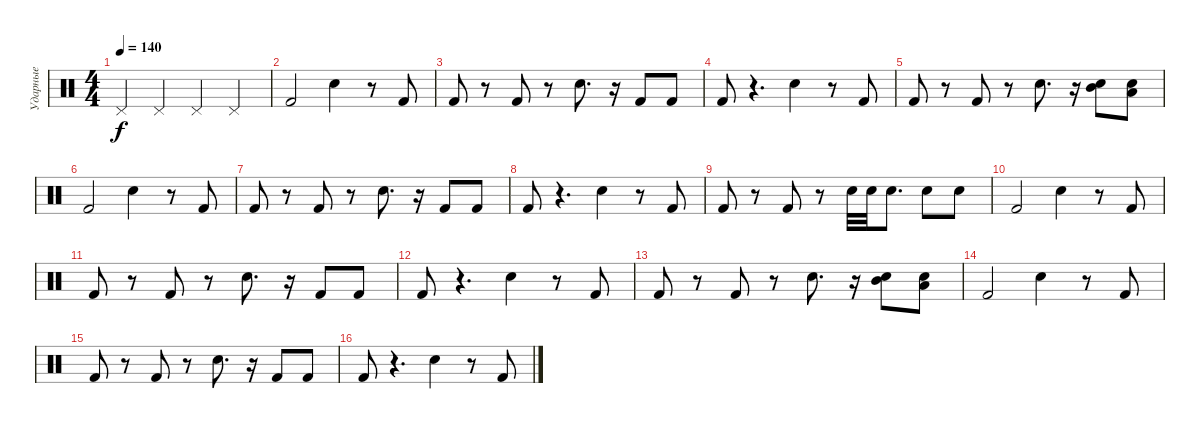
\track ("Ударные" "Ударные") {instrument percussion}
\staff {score}
\articulation defaults
\ts (4 4)
\tempo 140
\clef neutral
\ks c "Pedal Hi-Hat (hit)".4{dy f} "Pedal Hi-Hat (hit)".4 "Pedal Hi-Hat (hit)".4 "Pedal Hi-Hat (hit)".4
|
"Kick (hit) 2".2 "Electric Snare (hit)".4 r.8 "Kick (hit) 2".8 |
"Kick (hit) 2".8 r.8 "Kick (hit) 2".8 r.8 "Electric Snare (hit)".8{d} r.16 "Kick (hit) 2".8 "Kick (hit) 2".8 |
"Kick (hit) 2".8 r.4{d} "Electric Snare (hit)".4 r.8 "Kick (hit) 2".8 |
"Kick (hit) 2".8 r.8 "Kick (hit) 2".8 r.8 "Electric Snare (hit)".8{d} r.16 ("Electric Snare (hit)" "Mid Tom (hit)").8 ("Electric Snare (hit)" "Low Tom (hit)").8 |
"Kick (hit) 2".2 "Electric Snare (hit)".4 r.8 "Kick (hit) 2".8 |
"Kick (hit) 2".8 r.8 "Kick (hit) 2".8 r.8 "Electric Snare (hit)".8{d} r.16 "Kick (hit) 2".8 "Kick (hit) 2".8 |
"Kick (hit) 2".8 r.4{d} "Electric Snare (hit)".4 r.8 "Kick (hit) 2".8 |
"Kick (hit) 2".8 r.8 "Kick (hit) 2".8 r.8 "Electric Snare (hit)".32 "Electric Snare (hit)".32 "Electric Snare (hit)".8{d} "Electric Snare (hit)".8 "Electric Snare (hit)".8 |
"Kick (hit) 2".2 "Electric Snare (hit)".4 r.8 "Kick (hit) 2".8 |
"Kick (hit) 2".8 r.8 "Kick (hit) 2".8 r.8 "Electric Snare (hit)".8{d} r.16 "Kick (hit) 2".8 "Kick (hit) 2".8 |
"Kick (hit) 2".8 r.4{d} "Electric Snare (hit)".4 r.8 "Kick (hit) 2".8 |
"Kick (hit) 2".8 r.8 "Kick (hit) 2".8 r.8 "Electric Snare (hit)".8{d} r.16 ("Electric Snare (hit)" "Mid Tom (hit)").8 ("Electric Snare (hit)" "Low Tom (hit)").8 |
"Kick (hit) 2".2 "Electric Snare (hit)".4 r.8 "Kick (hit) 2".8 |
"Kick (hit) 2".8 r.8 "Kick (hit) 2".8 r.8 "Electric Snare (hit)".8{d} r.16 "Kick (hit) 2".8 "Kick (hit) 2".8 |
"Kick (hit) 2".8 r.4{d} "Electric Snare (hit)".4 r.8 "Kick (hit) 2".8
